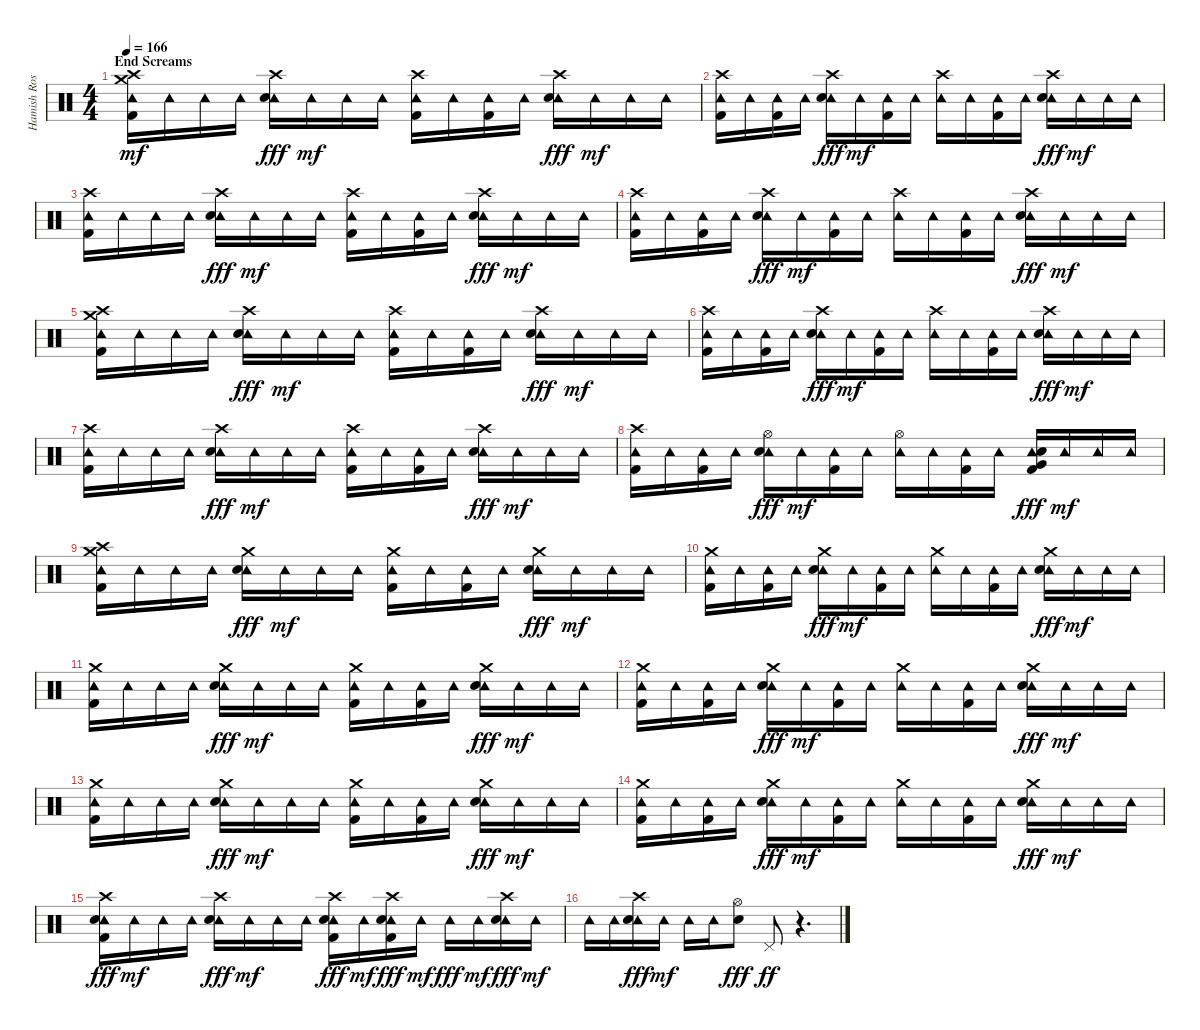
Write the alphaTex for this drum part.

\track ("Hamish Rosser" "Hamish Ros") {instrument percussion}
\staff {score}
\articulation defaults
\ts (4 4)
\section ("" "End Screams")
\tempo 166
\clef neutral
\ks c
("Crash high (hit)" "Crash medium (hit)" "Tambourine (hit)" "Kick (hit) 2").16{dy mf} "Tambourine (hit)".16 "Tambourine (hit)".16 "Tambourine (hit)".16 ("Crash high (hit)" "Tambourine (hit)" "Electric Snare (hit)").16{dy fff} "Tambourine (hit)".16{dy mf} "Tambourine (hit)".16 "Tambourine (hit)".16 ("Crash high (hit)" "Tambourine (hit)" "Kick (hit) 2").16 "Tambourine (hit)".16 ("Tambourine (hit)" "Kick (hit) 2").16 "Tambourine (hit)".16 ("Crash high (hit)" "Tambourine (hit)" "Electric Snare (hit)").16{dy fff} "Tambourine (hit)".16{dy mf} "Tambourine (hit)".16 "Tambourine (hit)".16 |
("Crash high (hit)" "Tambourine (hit)" "Kick (hit) 2").16 "Tambourine (hit)".16 ("Tambourine (hit)" "Kick (hit) 2").16 "Tambourine (hit)".16 ("Crash high (hit)" "Tambourine (hit)" "Electric Snare (hit)").16{dy fff} "Tambourine (hit)".16{dy mf} ("Tambourine (hit)" "Kick (hit) 2").16 "Tambourine (hit)".16 ("Crash high (hit)" "Tambourine (hit)").16 "Tambourine (hit)".16 ("Tambourine (hit)" "Kick (hit) 2").16 "Tambourine (hit)".16 ("Crash high (hit)" "Tambourine (hit)" "Electric Snare (hit)").16{dy fff} "Tambourine (hit)".16{dy mf} "Tambourine (hit)".16 "Tambourine (hit)".16 |
("Crash high (hit)" "Tambourine (hit)" "Kick (hit) 2").16 "Tambourine (hit)".16 "Tambourine (hit)".16 "Tambourine (hit)".16 ("Crash high (hit)" "Tambourine (hit)" "Electric Snare (hit)").16{dy fff} "Tambourine (hit)".16{dy mf} "Tambourine (hit)".16 "Tambourine (hit)".16 ("Crash high (hit)" "Tambourine (hit)" "Kick (hit) 2").16 "Tambourine (hit)".16 ("Tambourine (hit)" "Kick (hit) 2").16 "Tambourine (hit)".16 ("Crash high (hit)" "Tambourine (hit)" "Electric Snare (hit)").16{dy fff} "Tambourine (hit)".16{dy mf} "Tambourine (hit)".16 "Tambourine (hit)".16 |
("Crash high (hit)" "Tambourine (hit)" "Kick (hit) 2").16 "Tambourine (hit)".16 ("Tambourine (hit)" "Kick (hit) 2").16 "Tambourine (hit)".16 ("Crash high (hit)" "Tambourine (hit)" "Electric Snare (hit)").16{dy fff} "Tambourine (hit)".16{dy mf} ("Tambourine (hit)" "Kick (hit) 2").16 "Tambourine (hit)".16 ("Crash high (hit)" "Tambourine (hit)").16 "Tambourine (hit)".16 ("Tambourine (hit)" "Kick (hit) 2").16 "Tambourine (hit)".16 ("Crash high (hit)" "Tambourine (hit)" "Electric Snare (hit)").16{dy fff} "Tambourine (hit)".16{dy mf} "Tambourine (hit)".16 "Tambourine (hit)".16 |
("Crash high (hit)" "Crash medium (hit)" "Tambourine (hit)" "Kick (hit) 2").16 "Tambourine (hit)".16 "Tambourine (hit)".16 "Tambourine (hit)".16 ("Crash high (hit)" "Tambourine (hit)" "Electric Snare (hit)").16{dy fff} "Tambourine (hit)".16{dy mf} "Tambourine (hit)".16 "Tambourine (hit)".16 ("Crash high (hit)" "Tambourine (hit)" "Kick (hit) 2").16 "Tambourine (hit)".16 ("Tambourine (hit)" "Kick (hit) 2").16 "Tambourine (hit)".16 ("Crash high (hit)" "Tambourine (hit)" "Electric Snare (hit)").16{dy fff} "Tambourine (hit)".16{dy mf} "Tambourine (hit)".16 "Tambourine (hit)".16 |
("Crash high (hit)" "Tambourine (hit)" "Kick (hit) 2").16 "Tambourine (hit)".16 ("Tambourine (hit)" "Kick (hit) 2").16 "Tambourine (hit)".16 ("Crash high (hit)" "Tambourine (hit)" "Electric Snare (hit)").16{dy fff} "Tambourine (hit)".16{dy mf} ("Tambourine (hit)" "Kick (hit) 2").16 "Tambourine (hit)".16 ("Crash high (hit)" "Tambourine (hit)").16 "Tambourine (hit)".16 ("Tambourine (hit)" "Kick (hit) 2").16 "Tambourine (hit)".16 ("Crash high (hit)" "Tambourine (hit)" "Electric Snare (hit)").16{dy fff} "Tambourine (hit)".16{dy mf} "Tambourine (hit)".16 "Tambourine (hit)".16 |
("Crash high (hit)" "Tambourine (hit)" "Kick (hit) 2").16 "Tambourine (hit)".16 "Tambourine (hit)".16 "Tambourine (hit)".16 ("Crash high (hit)" "Tambourine (hit)" "Electric Snare (hit)").16{dy fff} "Tambourine (hit)".16{dy mf} "Tambourine (hit)".16 "Tambourine (hit)".16 ("Crash high (hit)" "Tambourine (hit)" "Kick (hit) 2").16 "Tambourine (hit)".16 ("Tambourine (hit)" "Kick (hit) 2").16 "Tambourine (hit)".16 ("Crash high (hit)" "Tambourine (hit)" "Electric Snare (hit)").16{dy fff} "Tambourine (hit)".16{dy mf} "Tambourine (hit)".16 "Tambourine (hit)".16 |
("Crash high (hit)" "Tambourine (hit)" "Kick (hit) 2").16 "Tambourine (hit)".16 ("Tambourine (hit)" "Kick (hit) 2").16 "Tambourine (hit)".16 ("Hi-Hat (open)" "Tambourine (hit)" "Electric Snare (hit)").16{dy fff} "Tambourine (hit)".16{dy mf} ("Tambourine (hit)" "Kick (hit) 2").16 "Tambourine (hit)".16 ("Hi-Hat (open)" "Tambourine (hit)").16 "Tambourine (hit)".16 ("Tambourine (hit)" "Kick (hit) 2").16 "Tambourine (hit)".16 ("Tambourine (hit)" "Electric Snare (hit)" "Very Low Tom (hit)" "Kick (hit) 2").16{dy fff} "Tambourine (hit)".16{dy mf} "Tambourine (hit)".16 "Tambourine (hit)".16 |
("Crash high (hit)" "Crash medium (hit)" "Tambourine (hit)" "Kick (hit) 2").16 "Tambourine (hit)".16 "Tambourine (hit)".16 "Tambourine (hit)".16 ("Crash medium (hit)" "Tambourine (hit)" "Electric Snare (hit)").16{dy fff} "Tambourine (hit)".16{dy mf} "Tambourine (hit)".16 "Tambourine (hit)".16 ("Crash medium (hit)" "Tambourine (hit)" "Kick (hit) 2").16 "Tambourine (hit)".16 ("Tambourine (hit)" "Kick (hit) 2").16 "Tambourine (hit)".16 ("Crash medium (hit)" "Tambourine (hit)" "Electric Snare (hit)").16{dy fff} "Tambourine (hit)".16{dy mf} "Tambourine (hit)".16 "Tambourine (hit)".16 |
("Crash medium (hit)" "Tambourine (hit)" "Kick (hit) 2").16 "Tambourine (hit)".16 ("Tambourine (hit)" "Kick (hit) 2").16 "Tambourine (hit)".16 ("Crash medium (hit)" "Tambourine (hit)" "Electric Snare (hit)").16{dy fff} "Tambourine (hit)".16{dy mf} ("Tambourine (hit)" "Kick (hit) 2").16 "Tambourine (hit)".16 ("Crash medium (hit)" "Tambourine (hit)").16 "Tambourine (hit)".16 ("Tambourine (hit)" "Kick (hit) 2").16 "Tambourine (hit)".16 ("Crash medium (hit)" "Tambourine (hit)" "Electric Snare (hit)").16{dy fff} "Tambourine (hit)".16{dy mf} "Tambourine (hit)".16 "Tambourine (hit)".16 |
("Crash medium (hit)" "Tambourine (hit)" "Kick (hit) 2").16 "Tambourine (hit)".16 "Tambourine (hit)".16 "Tambourine (hit)".16 ("Crash medium (hit)" "Tambourine (hit)" "Electric Snare (hit)").16{dy fff} "Tambourine (hit)".16{dy mf} "Tambourine (hit)".16 "Tambourine (hit)".16 ("Crash medium (hit)" "Tambourine (hit)" "Kick (hit) 2").16 "Tambourine (hit)".16 ("Tambourine (hit)" "Kick (hit) 2").16 "Tambourine (hit)".16 ("Crash medium (hit)" "Tambourine (hit)" "Electric Snare (hit)").16{dy fff} "Tambourine (hit)".16{dy mf} "Tambourine (hit)".16 "Tambourine (hit)".16 |
("Crash medium (hit)" "Tambourine (hit)" "Kick (hit) 2").16 "Tambourine (hit)".16 ("Tambourine (hit)" "Kick (hit) 2").16 "Tambourine (hit)".16 ("Crash medium (hit)" "Tambourine (hit)" "Electric Snare (hit)").16{dy fff} "Tambourine (hit)".16{dy mf} ("Tambourine (hit)" "Kick (hit) 2").16 "Tambourine (hit)".16 ("Crash medium (hit)" "Tambourine (hit)").16 "Tambourine (hit)".16 ("Tambourine (hit)" "Kick (hit) 2").16 "Tambourine (hit)".16 ("Crash medium (hit)" "Tambourine (hit)" "Electric Snare (hit)").16{dy fff} "Tambourine (hit)".16{dy mf} "Tambourine (hit)".16 "Tambourine (hit)".16 |
("Crash medium (hit)" "Tambourine (hit)" "Kick (hit) 2").16 "Tambourine (hit)".16 "Tambourine (hit)".16 "Tambourine (hit)".16 ("Crash medium (hit)" "Tambourine (hit)" "Electric Snare (hit)").16{dy fff} "Tambourine (hit)".16{dy mf} "Tambourine (hit)".16 "Tambourine (hit)".16 ("Crash medium (hit)" "Tambourine (hit)" "Kick (hit) 2").16 "Tambourine (hit)".16 ("Tambourine (hit)" "Kick (hit) 2").16 "Tambourine (hit)".16 ("Crash medium (hit)" "Tambourine (hit)" "Electric Snare (hit)").16{dy fff} "Tambourine (hit)".16{dy mf} "Tambourine (hit)".16 "Tambourine (hit)".16 |
("Crash medium (hit)" "Tambourine (hit)" "Kick (hit) 2").16 "Tambourine (hit)".16 ("Tambourine (hit)" "Kick (hit) 2").16 "Tambourine (hit)".16 ("Crash medium (hit)" "Tambourine (hit)" "Electric Snare (hit)").16{dy fff} "Tambourine (hit)".16{dy mf} ("Tambourine (hit)" "Kick (hit) 2").16 "Tambourine (hit)".16 ("Crash medium (hit)" "Tambourine (hit)").16 "Tambourine (hit)".16 ("Tambourine (hit)" "Kick (hit) 2").16 "Tambourine (hit)".16 ("Crash medium (hit)" "Tambourine (hit)" "Electric Snare (hit)").16{dy fff} "Tambourine (hit)".16{dy mf} "Tambourine (hit)".16 "Tambourine (hit)".16 |
("Crash high (hit)" "Tambourine (hit)" "Electric Snare (hit)" "Kick (hit) 2").16{dy fff} "Tambourine (hit)".16{dy mf} "Tambourine (hit)".16 "Tambourine (hit)".16 ("Crash high (hit)" "Tambourine (hit)" "Electric Snare (hit)").16{dy fff} "Tambourine (hit)".16{dy mf} "Tambourine (hit)".16 "Tambourine (hit)".16 ("Crash high (hit)" "Tambourine (hit)" "Electric Snare (hit)" "Kick (hit) 2").16{dy fff} "Tambourine (hit)".16{dy mf} ("Crash high (hit)" "Tambourine (hit)" "Electric Snare (hit)" "Kick (hit) 2").16{dy fff} "Tambourine (hit)".16{dy mf} "Tambourine (hit)".16{dy fff} "Tambourine (hit)".16{dy mf} ("Crash high (hit)" "Tambourine (hit)" "Electric Snare (hit)").16{dy fff} "Tambourine (hit)".16{dy mf} |
"Tambourine (hit)".16 "Tambourine (hit)".16 ("Crash high (hit)" "Tambourine (hit)" "Electric Snare (hit)").16{dy fff} "Tambourine (hit)".16{dy mf} "Tambourine (hit)".16 "Tambourine (hit)".16 ("Hi-Hat (open)" "Electric Snare (hit)").8{dy fff} "Pedal Hi-Hat (hit)".8{dy ff} r.4{d}
